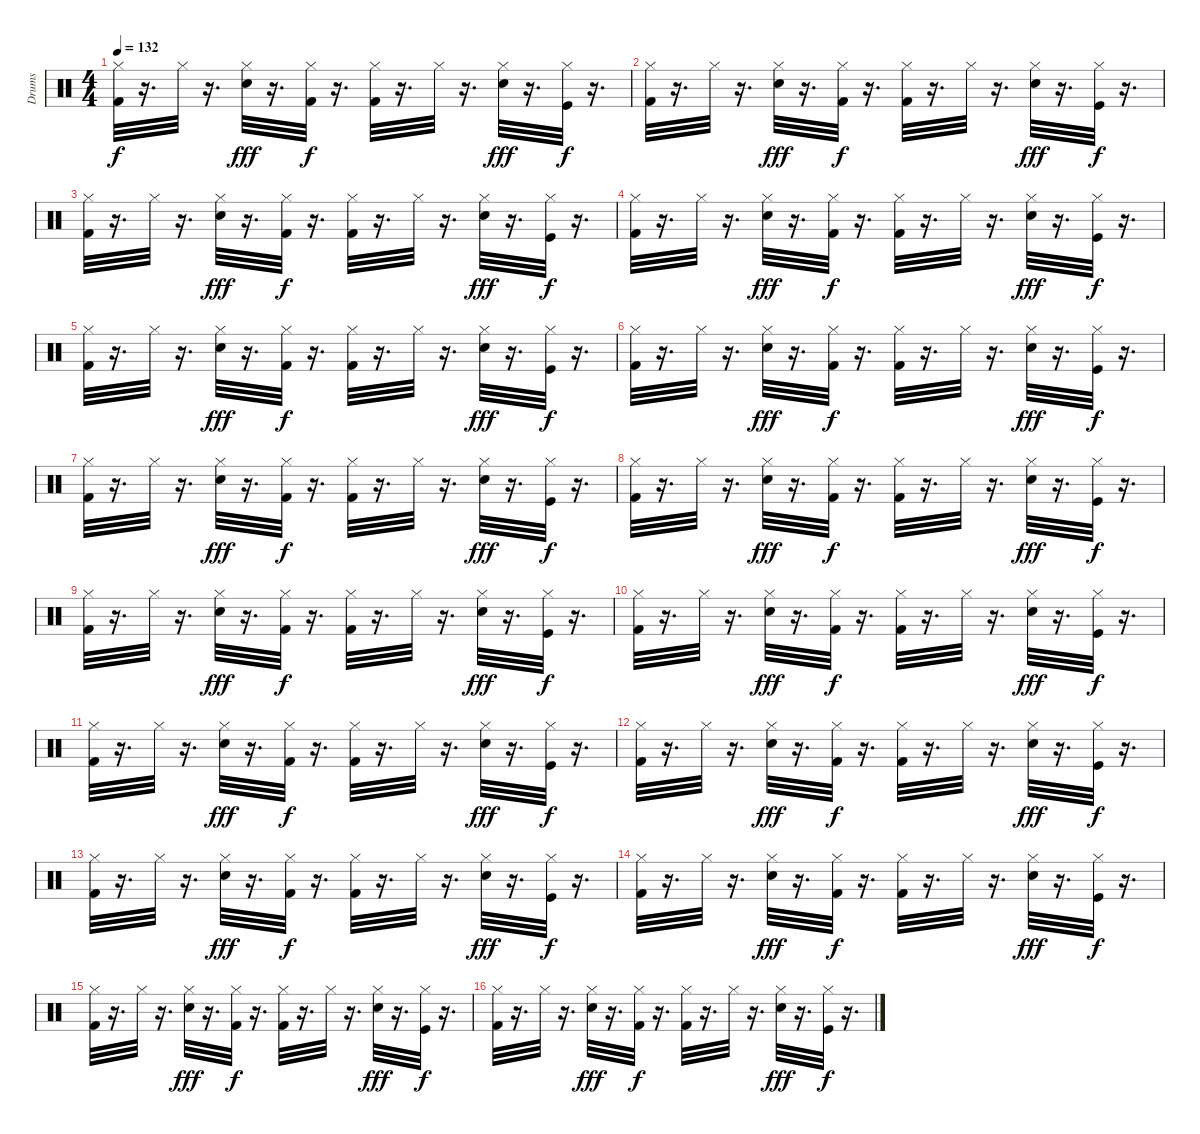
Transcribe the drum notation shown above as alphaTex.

\track ("Drums" "Drums") {instrument percussion}
\staff {score}
\articulation defaults
\ts (4 4)
\tempo 132
\clef neutral
\ks c
("Hi-Hat (closed)" "Kick (hit) 2").32{dy f} r.16{d} "Hi-Hat (closed)".32 r.16{d} ("Hi-Hat (closed)" "Hand Clap (hit)").32{dy fff} r.16{d} ("Hi-Hat (closed)" "Kick (hit) 2").32{dy f} r.16{d} ("Hi-Hat (closed)" "Kick (hit) 2").32 r.16{d} "Hi-Hat (closed)".32 r.16{d} ("Hi-Hat (closed)" "Hand Clap (hit)").32{dy fff} r.16{d} ("Hi-Hat (closed)" "Kick (hit)").32{dy f} r.16{d} |
("Hi-Hat (closed)" "Kick (hit) 2").32 r.16{d} "Hi-Hat (closed)".32 r.16{d} ("Hi-Hat (closed)" "Hand Clap (hit)").32{dy fff} r.16{d} ("Hi-Hat (closed)" "Kick (hit) 2").32{dy f} r.16{d} ("Hi-Hat (closed)" "Kick (hit) 2").32 r.16{d} "Hi-Hat (closed)".32 r.16{d} ("Hi-Hat (closed)" "Hand Clap (hit)").32{dy fff} r.16{d} ("Hi-Hat (closed)" "Kick (hit)").32{dy f} r.16{d} |
("Hi-Hat (closed)" "Kick (hit) 2").32 r.16{d} "Hi-Hat (closed)".32 r.16{d} ("Hi-Hat (closed)" "Hand Clap (hit)").32{dy fff} r.16{d} ("Hi-Hat (closed)" "Kick (hit) 2").32{dy f} r.16{d} ("Hi-Hat (closed)" "Kick (hit) 2").32 r.16{d} "Hi-Hat (closed)".32 r.16{d} ("Hi-Hat (closed)" "Hand Clap (hit)").32{dy fff} r.16{d} ("Hi-Hat (closed)" "Kick (hit)").32{dy f} r.16{d} |
("Hi-Hat (closed)" "Kick (hit) 2").32 r.16{d} "Hi-Hat (closed)".32 r.16{d} ("Hi-Hat (closed)" "Hand Clap (hit)").32{dy fff} r.16{d} ("Hi-Hat (closed)" "Kick (hit) 2").32{dy f} r.16{d} ("Hi-Hat (closed)" "Kick (hit) 2").32 r.16{d} "Hi-Hat (closed)".32 r.16{d} ("Hi-Hat (closed)" "Hand Clap (hit)").32{dy fff} r.16{d} ("Hi-Hat (closed)" "Kick (hit)").32{dy f} r.16{d} |
("Hi-Hat (closed)" "Kick (hit) 2").32 r.16{d} "Hi-Hat (closed)".32 r.16{d} ("Hi-Hat (closed)" "Hand Clap (hit)").32{dy fff} r.16{d} ("Hi-Hat (closed)" "Kick (hit) 2").32{dy f} r.16{d} ("Hi-Hat (closed)" "Kick (hit) 2").32 r.16{d} "Hi-Hat (closed)".32 r.16{d} ("Hi-Hat (closed)" "Hand Clap (hit)").32{dy fff} r.16{d} ("Hi-Hat (closed)" "Kick (hit)").32{dy f} r.16{d} |
("Hi-Hat (closed)" "Kick (hit) 2").32 r.16{d} "Hi-Hat (closed)".32 r.16{d} ("Hi-Hat (closed)" "Hand Clap (hit)").32{dy fff} r.16{d} ("Hi-Hat (closed)" "Kick (hit) 2").32{dy f} r.16{d} ("Hi-Hat (closed)" "Kick (hit) 2").32 r.16{d} "Hi-Hat (closed)".32 r.16{d} ("Hi-Hat (closed)" "Hand Clap (hit)").32{dy fff} r.16{d} ("Hi-Hat (closed)" "Kick (hit)").32{dy f} r.16{d} |
("Hi-Hat (closed)" "Kick (hit) 2").32 r.16{d} "Hi-Hat (closed)".32 r.16{d} ("Hi-Hat (closed)" "Hand Clap (hit)").32{dy fff} r.16{d} ("Hi-Hat (closed)" "Kick (hit) 2").32{dy f} r.16{d} ("Hi-Hat (closed)" "Kick (hit) 2").32 r.16{d} "Hi-Hat (closed)".32 r.16{d} ("Hi-Hat (closed)" "Hand Clap (hit)").32{dy fff} r.16{d} ("Hi-Hat (closed)" "Kick (hit)").32{dy f} r.16{d} |
("Hi-Hat (closed)" "Kick (hit) 2").32 r.16{d} "Hi-Hat (closed)".32 r.16{d} ("Hi-Hat (closed)" "Hand Clap (hit)").32{dy fff} r.16{d} ("Hi-Hat (closed)" "Kick (hit) 2").32{dy f} r.16{d} ("Hi-Hat (closed)" "Kick (hit) 2").32 r.16{d} "Hi-Hat (closed)".32 r.16{d} ("Hi-Hat (closed)" "Hand Clap (hit)").32{dy fff} r.16{d} ("Hi-Hat (closed)" "Kick (hit)").32{dy f} r.16{d} |
("Hi-Hat (closed)" "Kick (hit) 2").32 r.16{d} "Hi-Hat (closed)".32 r.16{d} ("Hi-Hat (closed)" "Hand Clap (hit)").32{dy fff} r.16{d} ("Hi-Hat (closed)" "Kick (hit) 2").32{dy f} r.16{d} ("Hi-Hat (closed)" "Kick (hit) 2").32 r.16{d} "Hi-Hat (closed)".32 r.16{d} ("Hi-Hat (closed)" "Hand Clap (hit)").32{dy fff} r.16{d} ("Hi-Hat (closed)" "Kick (hit)").32{dy f} r.16{d} |
("Hi-Hat (closed)" "Kick (hit) 2").32 r.16{d} "Hi-Hat (closed)".32 r.16{d} ("Hi-Hat (closed)" "Hand Clap (hit)").32{dy fff} r.16{d} ("Hi-Hat (closed)" "Kick (hit) 2").32{dy f} r.16{d} ("Hi-Hat (closed)" "Kick (hit) 2").32 r.16{d} "Hi-Hat (closed)".32 r.16{d} ("Hi-Hat (closed)" "Hand Clap (hit)").32{dy fff} r.16{d} ("Hi-Hat (closed)" "Kick (hit)").32{dy f} r.16{d} |
("Hi-Hat (closed)" "Kick (hit) 2").32 r.16{d} "Hi-Hat (closed)".32 r.16{d} ("Hi-Hat (closed)" "Hand Clap (hit)").32{dy fff} r.16{d} ("Hi-Hat (closed)" "Kick (hit) 2").32{dy f} r.16{d} ("Hi-Hat (closed)" "Kick (hit) 2").32 r.16{d} "Hi-Hat (closed)".32 r.16{d} ("Hi-Hat (closed)" "Hand Clap (hit)").32{dy fff} r.16{d} ("Hi-Hat (closed)" "Kick (hit)").32{dy f} r.16{d} |
("Hi-Hat (closed)" "Kick (hit) 2").32 r.16{d} "Hi-Hat (closed)".32 r.16{d} ("Hi-Hat (closed)" "Hand Clap (hit)").32{dy fff} r.16{d} ("Hi-Hat (closed)" "Kick (hit) 2").32{dy f} r.16{d} ("Hi-Hat (closed)" "Kick (hit) 2").32 r.16{d} "Hi-Hat (closed)".32 r.16{d} ("Hi-Hat (closed)" "Hand Clap (hit)").32{dy fff} r.16{d} ("Hi-Hat (closed)" "Kick (hit)").32{dy f} r.16{d} |
("Hi-Hat (closed)" "Kick (hit) 2").32 r.16{d} "Hi-Hat (closed)".32 r.16{d} ("Hi-Hat (closed)" "Hand Clap (hit)").32{dy fff} r.16{d} ("Hi-Hat (closed)" "Kick (hit) 2").32{dy f} r.16{d} ("Hi-Hat (closed)" "Kick (hit) 2").32 r.16{d} "Hi-Hat (closed)".32 r.16{d} ("Hi-Hat (closed)" "Hand Clap (hit)").32{dy fff} r.16{d} ("Hi-Hat (closed)" "Kick (hit)").32{dy f} r.16{d} |
("Hi-Hat (closed)" "Kick (hit) 2").32 r.16{d} "Hi-Hat (closed)".32 r.16{d} ("Hi-Hat (closed)" "Hand Clap (hit)").32{dy fff} r.16{d} ("Hi-Hat (closed)" "Kick (hit) 2").32{dy f} r.16{d} ("Hi-Hat (closed)" "Kick (hit) 2").32 r.16{d} "Hi-Hat (closed)".32 r.16{d} ("Hi-Hat (closed)" "Hand Clap (hit)").32{dy fff} r.16{d} ("Hi-Hat (closed)" "Kick (hit)").32{dy f} r.16{d} |
("Hi-Hat (closed)" "Kick (hit) 2").32 r.16{d} "Hi-Hat (closed)".32 r.16{d} ("Hi-Hat (closed)" "Hand Clap (hit)").32{dy fff} r.16{d} ("Hi-Hat (closed)" "Kick (hit) 2").32{dy f} r.16{d} ("Hi-Hat (closed)" "Kick (hit) 2").32 r.16{d} "Hi-Hat (closed)".32 r.16{d} ("Hi-Hat (closed)" "Hand Clap (hit)").32{dy fff} r.16{d} ("Hi-Hat (closed)" "Kick (hit)").32{dy f} r.16{d} |
("Hi-Hat (closed)" "Kick (hit) 2").32 r.16{d} "Hi-Hat (closed)".32 r.16{d} ("Hi-Hat (closed)" "Hand Clap (hit)").32{dy fff} r.16{d} ("Hi-Hat (closed)" "Kick (hit) 2").32{dy f} r.16{d} ("Hi-Hat (closed)" "Kick (hit) 2").32 r.16{d} "Hi-Hat (closed)".32 r.16{d} ("Hi-Hat (closed)" "Hand Clap (hit)").32{dy fff} r.16{d} ("Hi-Hat (closed)" "Kick (hit)").32{dy f} r.16{d}
